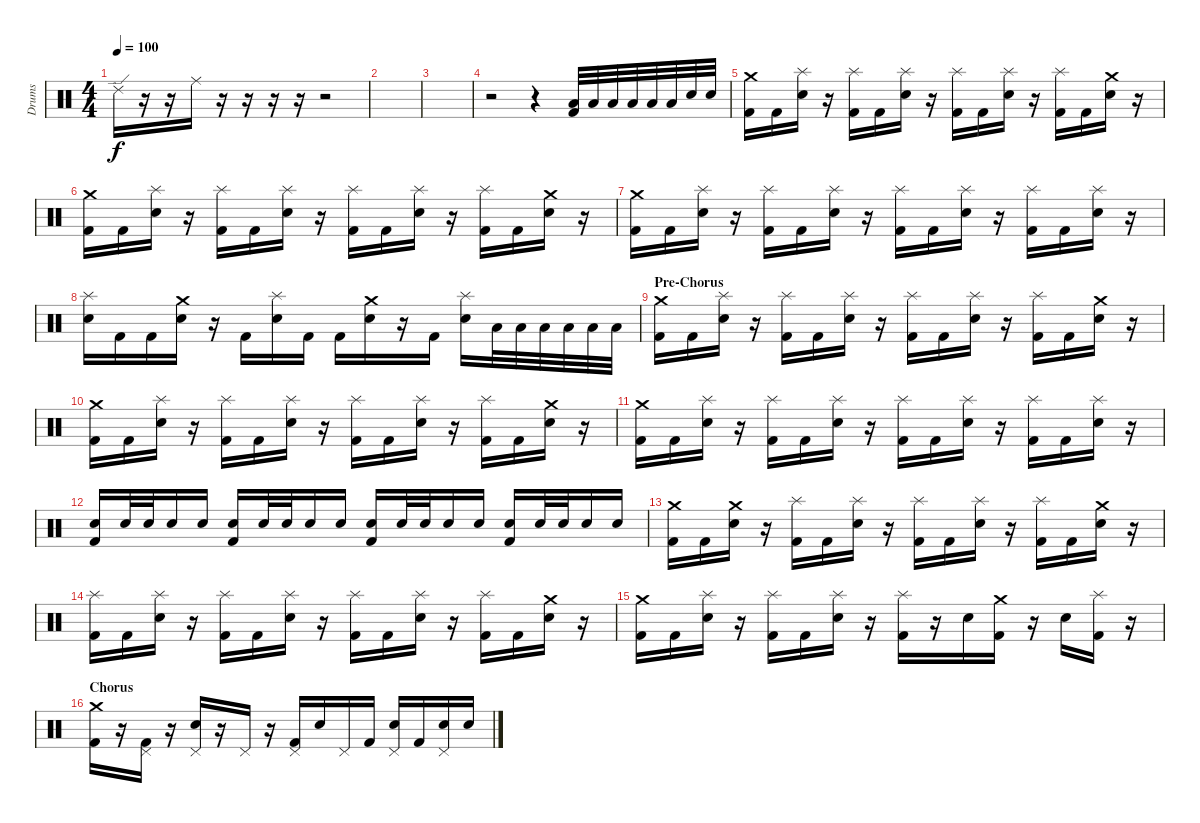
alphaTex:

\track ("Drums" "Drums") {instrument percussion}
\staff {score}
\articulation defaults
\ts (4 4)
\tempo 100
\clef neutral
\ks c "Ride (edge) 2".16{dy f}
r.16 r.16 "Ride (middle)".16 r.16 r.16 r.16 r.16 r.2 |
|
|
r.2 r.4 ("Low Tom (hit)" "Kick (hit) 2").32 "Low Tom (hit)".32 "Low Tom (hit)".32 "Low Tom (hit)".32 "Low Tom (hit)".32 "Low Tom (hit)".32 "Electric Snare (hit)".32 "Electric Snare (hit)".32 |
("Crash medium (hit)" "Kick (hit) 2").16 "Kick (hit) 2".16 ("Splash (hit)" "Electric Snare (hit)").16 r.16 ("Splash (hit)" "Kick (hit) 2").16 "Kick (hit) 2".16 ("Splash (hit)" "Electric Snare (hit)").16 r.16 ("Splash (hit)" "Kick (hit) 2").16 "Kick (hit) 2".16 ("Splash (hit)" "Electric Snare (hit)").16 r.16 ("Splash (hit)" "Kick (hit) 2").16 "Kick (hit) 2".16 ("Crash medium (hit)" "Electric Snare (hit)").16 r.16 |
("Crash medium (hit)" "Kick (hit) 2").16 "Kick (hit) 2".16 ("Splash (hit)" "Electric Snare (hit)").16 r.16 ("Splash (hit)" "Kick (hit) 2").16 "Kick (hit) 2".16 ("Splash (hit)" "Electric Snare (hit)").16 r.16 ("Splash (hit)" "Kick (hit) 2").16 "Kick (hit) 2".16 ("Splash (hit)" "Electric Snare (hit)").16 r.16 ("Splash (hit)" "Kick (hit) 2").16 "Kick (hit) 2".16 ("Crash medium (hit)" "Electric Snare (hit)").16 r.16 |
("Crash medium (hit)" "Kick (hit) 2").16 "Kick (hit) 2".16 ("Splash (hit)" "Electric Snare (hit)").16 r.16 ("Splash (hit)" "Kick (hit) 2").16 "Kick (hit) 2".16 ("Splash (hit)" "Electric Snare (hit)").16 r.16 ("Splash (hit)" "Kick (hit) 2").16 "Kick (hit) 2".16 ("Splash (hit)" "Electric Snare (hit)").16 r.16 ("Splash (hit)" "Kick (hit) 2").16 "Kick (hit) 2".16 ("Splash (hit)" "Electric Snare (hit)").16 r.16 |
("Splash (hit)" "Electric Snare (hit)").16 "Kick (hit) 2".16 "Kick (hit) 2".16 ("Crash medium (hit)" "Electric Snare (hit)").16 r.16 "Kick (hit) 2".16 ("Splash (hit)" "Electric Snare (hit)").16 "Kick (hit) 2".16 "Kick (hit) 2".16 ("Crash medium (hit)" "Electric Snare (hit)").16 r.16 "Kick (hit) 2".16 ("Splash (hit)" "Electric Snare (hit)").16 "Low Tom (hit)".32 "Low Tom (hit)".32 "Low Tom (hit)".32 "Low Tom (hit)".32 "Low Tom (hit)".32 "Low Tom (hit)".32 |
\section ("" "Pre-Chorus")
("Crash medium (hit)" "Kick (hit) 2").16 "Kick (hit) 2".16 ("Splash (hit)" "Electric Snare (hit)").16 r.16 ("Splash (hit)" "Kick (hit) 2").16 "Kick (hit) 2".16 ("Splash (hit)" "Electric Snare (hit)").16 r.16 ("Splash (hit)" "Kick (hit) 2").16 "Kick (hit) 2".16 ("Splash (hit)" "Electric Snare (hit)").16 r.16 ("Splash (hit)" "Kick (hit) 2").16 "Kick (hit) 2".16 ("Crash medium (hit)" "Electric Snare (hit)").16 r.16 |
("Crash medium (hit)" "Kick (hit) 2").16 "Kick (hit) 2".16 ("Splash (hit)" "Electric Snare (hit)").16 r.16 ("Splash (hit)" "Kick (hit) 2").16 "Kick (hit) 2".16 ("Splash (hit)" "Electric Snare (hit)").16 r.16 ("Splash (hit)" "Kick (hit) 2").16 "Kick (hit) 2".16 ("Splash (hit)" "Electric Snare (hit)").16 r.16 ("Splash (hit)" "Kick (hit) 2").16 "Kick (hit) 2".16 ("Crash medium (hit)" "Electric Snare (hit)").16 r.16 |
("Crash medium (hit)" "Kick (hit) 2").16 "Kick (hit) 2".16 ("Splash (hit)" "Electric Snare (hit)").16 r.16 ("Splash (hit)" "Kick (hit) 2").16 "Kick (hit) 2".16 ("Splash (hit)" "Electric Snare (hit)").16 r.16 ("Splash (hit)" "Kick (hit) 2").16 "Kick (hit) 2".16 ("Splash (hit)" "Electric Snare (hit)").16 r.16 ("Splash (hit)" "Kick (hit) 2").16 "Kick (hit) 2".16 ("Splash (hit)" "Electric Snare (hit)").16 r.16 |
("Electric Snare (hit)" "Kick (hit) 2").16 "Electric Snare (hit)".32 "Electric Snare (hit)".32 "Electric Snare (hit)".16 "Electric Snare (hit)".16 ("Electric Snare (hit)" "Kick (hit) 2").16 "Electric Snare (hit)".32 "Electric Snare (hit)".32 "Electric Snare (hit)".16 "Electric Snare (hit)".16 ("Electric Snare (hit)" "Kick (hit) 2").16 "Electric Snare (hit)".32 "Electric Snare (hit)".32 "Electric Snare (hit)".16 "Electric Snare (hit)".16 ("Electric Snare (hit)" "Kick (hit) 2").16 "Electric Snare (hit)".32 "Electric Snare (hit)".32 "Electric Snare (hit)".16 "Electric Snare (hit)".16 |
("Crash medium (hit)" "Kick (hit) 2").16 "Kick (hit) 2".16 ("Crash medium (hit)" "Electric Snare (hit)").16 r.16 ("Splash (hit)" "Kick (hit) 2").16 "Kick (hit) 2".16 ("Splash (hit)" "Electric Snare (hit)").16 r.16 ("Splash (hit)" "Kick (hit) 2").16 "Kick (hit) 2".16 ("Splash (hit)" "Electric Snare (hit)").16 r.16 ("Splash (hit)" "Kick (hit) 2").16 "Kick (hit) 2".16 ("Crash medium (hit)" "Electric Snare (hit)").16 r.16 |
("Splash (hit)" "Kick (hit) 2").16 "Kick (hit) 2".16 ("Splash (hit)" "Electric Snare (hit)").16 r.16 ("Splash (hit)" "Kick (hit) 2").16 "Kick (hit) 2".16 ("Splash (hit)" "Electric Snare (hit)").16 r.16 ("Splash (hit)" "Kick (hit) 2").16 "Kick (hit) 2".16 ("Splash (hit)" "Electric Snare (hit)").16 r.16 ("Splash (hit)" "Kick (hit) 2").16 "Kick (hit) 2".16 ("Crash medium (hit)" "Electric Snare (hit)").16 r.16 |
("Crash medium (hit)" "Kick (hit) 2").16 "Kick (hit) 2".16 ("Splash (hit)" "Electric Snare (hit)").16 r.16 ("Splash (hit)" "Kick (hit) 2").16 "Kick (hit) 2".16 ("Splash (hit)" "Electric Snare (hit)").16 r.16 ("Splash (hit)" "Kick (hit) 2").16 r.16 "Electric Snare (hit)".16 ("Crash medium (hit)" "Kick (hit) 2").16 r.16 "Electric Snare (hit)".16 ("Splash (hit)" "Kick (hit) 2").16 r.16 |
\section ("" "Chorus")
("Crash medium (hit)" "Kick (hit) 2").16 r.16 ("Pedal Hi-Hat (hit)" "Kick (hit) 2").16 r.16 ("Pedal Hi-Hat (hit)" "Electric Snare (hit)").16 r.16 "Pedal Hi-Hat (hit)".16 r.16 ("Pedal Hi-Hat (hit)" "Kick (hit) 2").16 "Electric Snare (hit)".16 "Pedal Hi-Hat (hit)".16 "Kick (hit) 2".16 ("Pedal Hi-Hat (hit)" "Electric Snare (hit)").16 "Kick (hit) 2".16 ("Pedal Hi-Hat (hit)" "Electric Snare (hit)").16 "Electric Snare (hit)".16
